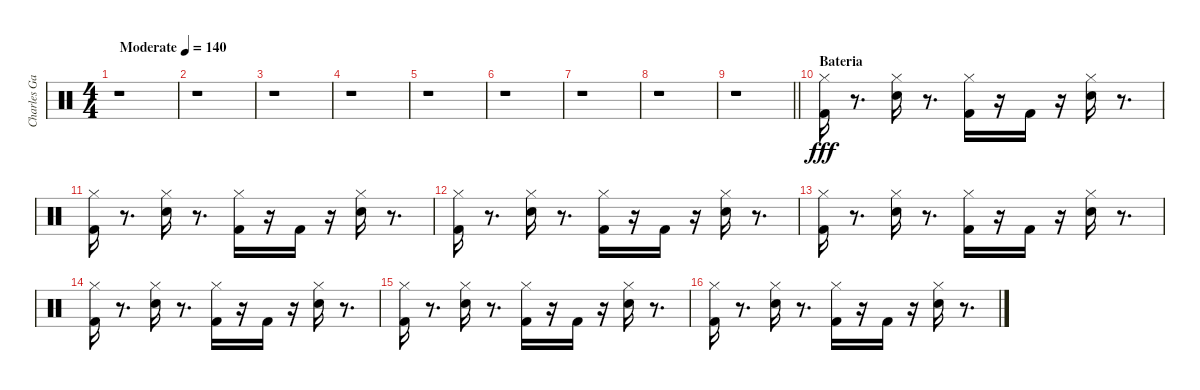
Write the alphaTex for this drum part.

\track ("Charles Gavin" "Charles Ga") {instrument percussion}
\staff {score}
\articulation defaults
\ts (4 4)
\tempo (140 "Moderate")
\clef neutral
\ks c
r.1{dy fff} |
r.1 |
r.1 |
r.1 |
r.1 |
r.1 |
r.1 |
r.1 |
\barLineRight lightlight
r.1 |
\section ("" "Bateria")
("Hi-Hat (closed)" "Kick (hit) 2").16 r.8{d} ("Hi-Hat (closed)" "Snare (hit) 2").16 r.8{d} ("Kick (hit) 2" "Hi-Hat (closed)").16 r.16 "Kick (hit) 2".16 r.16 ("Hi-Hat (closed)" "Snare (hit) 2").16 r.8{d} |
("Hi-Hat (closed)" "Kick (hit) 2").16 r.8{d} ("Hi-Hat (closed)" "Snare (hit) 2").16 r.8{d} ("Kick (hit) 2" "Hi-Hat (closed)").16 r.16 "Kick (hit) 2".16 r.16 ("Hi-Hat (closed)" "Snare (hit) 2").16 r.8{d} |
("Hi-Hat (closed)" "Kick (hit) 2").16 r.8{d} ("Hi-Hat (closed)" "Snare (hit) 2").16 r.8{d} ("Kick (hit) 2" "Hi-Hat (closed)").16 r.16 "Kick (hit) 2".16 r.16 ("Hi-Hat (closed)" "Snare (hit) 2").16 r.8{d} |
("Hi-Hat (closed)" "Kick (hit) 2").16 r.8{d} ("Hi-Hat (closed)" "Snare (hit) 2").16 r.8{d} ("Kick (hit) 2" "Hi-Hat (closed)").16 r.16 "Kick (hit) 2".16 r.16 ("Hi-Hat (closed)" "Snare (hit) 2").16 r.8{d} |
("Hi-Hat (closed)" "Kick (hit) 2").16 r.8{d} ("Hi-Hat (closed)" "Snare (hit) 2").16 r.8{d} ("Kick (hit) 2" "Hi-Hat (closed)").16 r.16 "Kick (hit) 2".16 r.16 ("Hi-Hat (closed)" "Snare (hit) 2").16 r.8{d} |
("Hi-Hat (closed)" "Kick (hit) 2").16 r.8{d} ("Hi-Hat (closed)" "Snare (hit) 2").16 r.8{d} ("Kick (hit) 2" "Hi-Hat (closed)").16 r.16 "Kick (hit) 2".16 r.16 ("Hi-Hat (closed)" "Snare (hit) 2").16 r.8{d} |
("Hi-Hat (closed)" "Kick (hit) 2").16 r.8{d} ("Hi-Hat (closed)" "Snare (hit) 2").16 r.8{d} ("Kick (hit) 2" "Hi-Hat (closed)").16 r.16 "Kick (hit) 2".16 r.16 ("Hi-Hat (closed)" "Snare (hit) 2").16 r.8{d}
